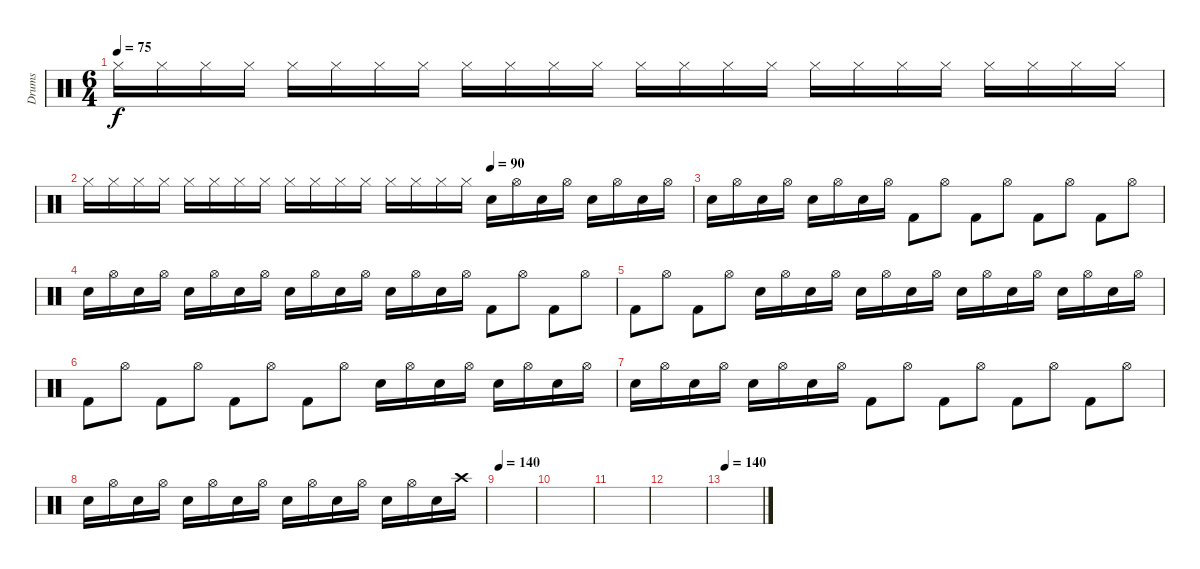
\track ("Drums" "Drums") {instrument percussion}
\staff {score}
\articulation defaults
\ts (6 4)
\tempo 75
\clef neutral
\ks c "Hi-Hat (closed)".16{dy f} "Hi-Hat (closed)".16 "Hi-Hat (closed)".16 "Hi-Hat (closed)".16 "Hi-Hat (closed)".16 "Hi-Hat (closed)".16 "Hi-Hat (closed)".16 "Hi-Hat (closed)".16 "Hi-Hat (closed)".16 "Hi-Hat (closed)".16 "Hi-Hat (closed)".16 "Hi-Hat (closed)".16 "Hi-Hat (closed)".16 "Hi-Hat (closed)".16 "Hi-Hat (closed)".16 "Hi-Hat (closed)".16 "Hi-Hat (closed)".16 "Hi-Hat (closed)".16 "Hi-Hat (closed)".16 "Hi-Hat (closed)".16 "Hi-Hat (closed)".16 "Hi-Hat (closed)".16 "Hi-Hat (closed)".16 "Hi-Hat (closed)".16
|
\tempo (90 0.6666666666666666)
"Hi-Hat (closed)".16 "Hi-Hat (closed)".16 "Hi-Hat (closed)".16 "Hi-Hat (closed)".16 "Hi-Hat (closed)".16 "Hi-Hat (closed)".16 "Hi-Hat (closed)".16 "Hi-Hat (closed)".16 "Hi-Hat (closed)".16 "Hi-Hat (closed)".16 "Hi-Hat (closed)".16 "Hi-Hat (closed)".16 "Hi-Hat (closed)".16 "Hi-Hat (closed)".16 "Hi-Hat (closed)".16 "Hi-Hat (closed)".16 "Snare (hit) 2".16 "Hi-Hat (open)".16 "Snare (hit) 2".16 "Hi-Hat (open)".16 "Snare (hit) 2".16 "Hi-Hat (open)".16 "Snare (hit) 2".16 "Hi-Hat (open)".16 |
"Snare (hit) 2".16 "Hi-Hat (open)".16 "Snare (hit) 2".16 "Hi-Hat (open)".16 "Snare (hit) 2".16 "Hi-Hat (open)".16 "Snare (hit) 2".16 "Hi-Hat (open)".16 "Kick (hit) 2".8 "Hi-Hat (open)".8 "Kick (hit) 2".8 "Hi-Hat (open)".8 "Kick (hit) 2".8 "Hi-Hat (open)".8 "Kick (hit) 2".8 "Hi-Hat (open)".8 |
"Snare (hit) 2".16 "Hi-Hat (open)".16 "Snare (hit) 2".16 "Hi-Hat (open)".16 "Snare (hit) 2".16 "Hi-Hat (open)".16 "Snare (hit) 2".16 "Hi-Hat (open)".16 "Snare (hit) 2".16 "Hi-Hat (open)".16 "Snare (hit) 2".16 "Hi-Hat (open)".16 "Snare (hit) 2".16 "Hi-Hat (open)".16 "Snare (hit) 2".16 "Hi-Hat (open)".16 "Kick (hit) 2".8 "Hi-Hat (open)".8 "Kick (hit) 2".8 "Hi-Hat (open)".8 |
"Kick (hit) 2".8 "Hi-Hat (open)".8 "Kick (hit) 2".8 "Hi-Hat (open)".8 "Snare (hit) 2".16 "Hi-Hat (open)".16 "Snare (hit) 2".16 "Hi-Hat (open)".16 "Snare (hit) 2".16 "Hi-Hat (open)".16 "Snare (hit) 2".16 "Hi-Hat (open)".16 "Snare (hit) 2".16 "Hi-Hat (open)".16 "Snare (hit) 2".16 "Hi-Hat (open)".16 "Snare (hit) 2".16 "Hi-Hat (open)".16 "Snare (hit) 2".16 "Hi-Hat (open)".16 |
"Kick (hit) 2".8 "Hi-Hat (open)".8 "Kick (hit) 2".8 "Hi-Hat (open)".8 "Kick (hit) 2".8 "Hi-Hat (open)".8 "Kick (hit) 2".8 "Hi-Hat (open)".8 "Snare (hit) 2".16 "Hi-Hat (open)".16 "Snare (hit) 2".16 "Hi-Hat (open)".16 "Snare (hit) 2".16 "Hi-Hat (open)".16 "Snare (hit) 2".16 "Hi-Hat (open)".16 |
"Snare (hit) 2".16 "Hi-Hat (open)".16 "Snare (hit) 2".16 "Hi-Hat (open)".16 "Snare (hit) 2".16 "Hi-Hat (open)".16 "Snare (hit) 2".16 "Hi-Hat (open)".16 "Kick (hit) 2".8 "Hi-Hat (open)".8 "Kick (hit) 2".8 "Hi-Hat (open)".8 "Kick (hit) 2".8 "Hi-Hat (open)".8 "Kick (hit) 2".8 "Hi-Hat (open)".8 |
"Snare (hit) 2".16 "Hi-Hat (open)".16 "Snare (hit) 2".16 "Hi-Hat (open)".16 "Snare (hit) 2".16 "Hi-Hat (open)".16 "Snare (hit) 2".16 "Hi-Hat (open)".16 "Snare (hit) 2".16 "Hi-Hat (open)".16 "Snare (hit) 2".16 "Hi-Hat (open)".16 "Snare (hit) 2".16 "Hi-Hat (open)".16 "Snare (hit) 2".16 "Crash high (hit)".16 |
\tempo 140
|
|
|
|
\tempo 140
